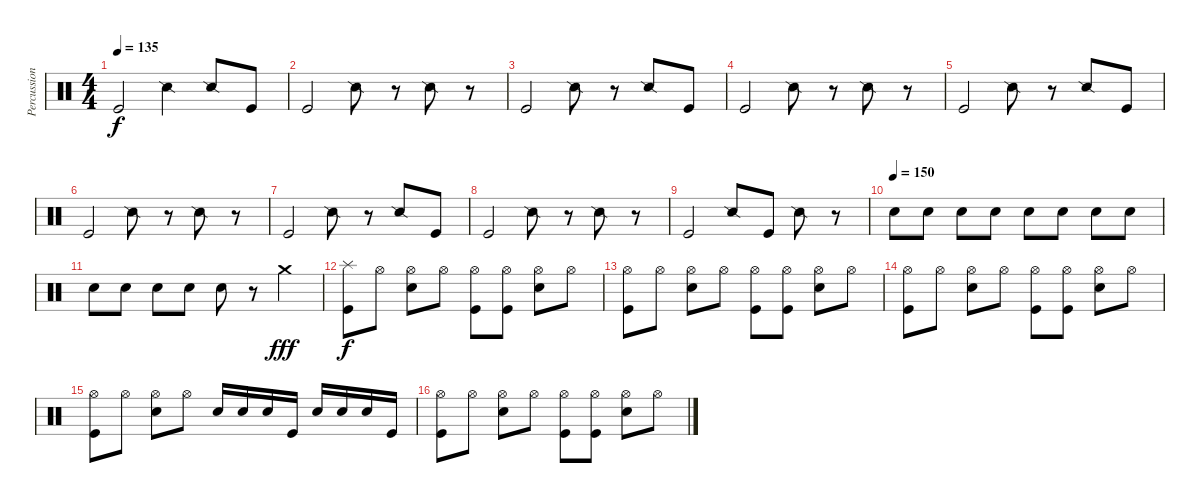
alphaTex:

\track ("Percussion" "Percussion") {instrument percussion}
\staff {score}
\articulation defaults
\ts (4 4)
\tempo 135
\clef neutral
\ks c "Kick (hit)".2{dy f} "Snare (side stick) 2".4 "Snare (side stick) 2".8 "Kick (hit)".8
|
"Kick (hit)".2 "Snare (side stick) 2".8 r.8 "Snare (side stick) 2".8 r.8 |
"Kick (hit)".2 "Snare (side stick) 2".8 r.8 "Snare (side stick) 2".8 "Kick (hit)".8 |
"Kick (hit)".2 "Snare (side stick) 2".8 r.8 "Snare (side stick) 2".8 r.8 |
"Kick (hit)".2 "Snare (side stick) 2".8 r.8 "Snare (side stick) 2".8 "Kick (hit)".8 |
"Kick (hit)".2 "Snare (side stick) 2".8 r.8 "Snare (side stick) 2".8 r.8 |
"Kick (hit)".2 "Snare (side stick) 2".8 r.8 "Snare (side stick) 2".8 "Kick (hit)".8 |
"Kick (hit)".2 "Snare (side stick) 2".8 r.8 "Snare (side stick) 2".8 r.8 |
"Kick (hit)".2 "Snare (side stick) 2".8 "Kick (hit)".8 "Snare (side stick) 2".8 r.8 |
\tempo (150)
"Snare (hit) 2".8 "Snare (hit) 2".8 "Snare (hit) 2".8 "Snare (hit) 2".8 "Snare (hit) 2".8 "Snare (hit) 2".8 "Snare (hit) 2".8 "Snare (hit) 2".8 |
"Snare (hit) 2".8 "Snare (hit) 2".8 "Snare (hit) 2".8 "Snare (hit) 2".8 "Snare (hit) 2".8 r.8 "Crash medium (hit)".4{dy fff} |
("Splash (hit)" "Kick (hit)").8{dy f} "Hi-Hat (open)".8 ("Hi-Hat (open)" "Snare (hit) 2").8 "Hi-Hat (open)".8 ("Hi-Hat (open)" "Kick (hit)").8 ("Hi-Hat (open)" "Kick (hit)").8 ("Hi-Hat (open)" "Snare (hit) 2").8 "Hi-Hat (open)".8 |
("Hi-Hat (open)" "Kick (hit)").8 "Hi-Hat (open)".8 ("Hi-Hat (open)" "Snare (hit) 2").8 "Hi-Hat (open)".8 ("Hi-Hat (open)" "Kick (hit)").8 ("Hi-Hat (open)" "Kick (hit)").8 ("Hi-Hat (open)" "Snare (hit) 2").8 "Hi-Hat (open)".8 |
("Hi-Hat (open)" "Kick (hit)").8 "Hi-Hat (open)".8 ("Hi-Hat (open)" "Snare (hit) 2").8 "Hi-Hat (open)".8 ("Hi-Hat (open)" "Kick (hit)").8 ("Hi-Hat (open)" "Kick (hit)").8 ("Hi-Hat (open)" "Snare (hit) 2").8 "Hi-Hat (open)".8 |
("Hi-Hat (open)" "Kick (hit)").8 "Hi-Hat (open)".8 ("Hi-Hat (open)" "Snare (hit) 2").8 "Hi-Hat (open)".8 "Snare (hit) 2".16 "Snare (hit) 2".16 "Snare (hit) 2".16 "Kick (hit)".16 "Snare (hit) 2".16 "Snare (hit) 2".16 "Snare (hit) 2".16 "Kick (hit)".16 |
("Hi-Hat (open)" "Kick (hit)").8 "Hi-Hat (open)".8 ("Hi-Hat (open)" "Snare (hit) 2").8 "Hi-Hat (open)".8 ("Hi-Hat (open)" "Kick (hit)").8 ("Hi-Hat (open)" "Kick (hit)").8 ("Hi-Hat (open)" "Snare (hit) 2").8 "Hi-Hat (open)".8
